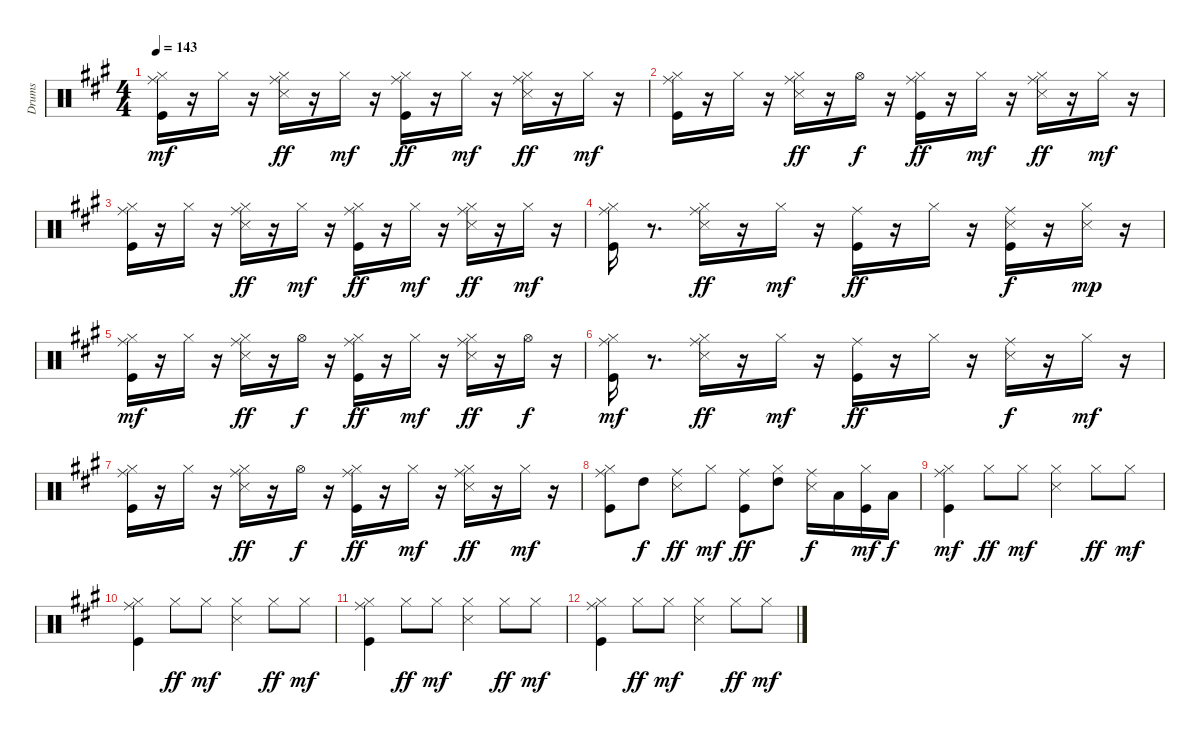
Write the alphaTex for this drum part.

\track ("Drums" "Drums") {instrument percussion}
\staff {score}
\articulation defaults
\ts (4 4)
\tempo 143
\clef neutral
\ks a
("Kick (hit)" "Hi-Hat (closed)" "Ride (middle)").16{dy mf} r.16 "Hi-Hat (closed)".16 r.16 ("Hi-Hat (closed)" "Snare (side stick) 3" "Ride (middle)").16{dy ff} r.16 "Hi-Hat (closed)".16{dy mf} r.16 ("Kick (hit)" "Hi-Hat (closed)" "Ride (middle)").16{dy ff} r.16 "Hi-Hat (closed)".16{dy mf} r.16 ("Hi-Hat (closed)" "Snare (side stick) 3" "Ride (middle)").16{dy ff} r.16 "Hi-Hat (closed)".16{dy mf} r.16 |
("Kick (hit)" "Hi-Hat (closed)" "Ride (middle)").16 r.16 "Hi-Hat (closed)".16 r.16 ("Hi-Hat (closed)" "Snare (side stick) 3" "Ride (middle)").16{dy ff} r.16 "Hi-Hat (open)".16{dy f} r.16 ("Kick (hit)" "Hi-Hat (closed)" "Ride (middle)").16{dy ff} r.16 "Hi-Hat (closed)".16{dy mf} r.16 ("Hi-Hat (closed)" "Snare (side stick) 3" "Ride (middle)").16{dy ff} r.16 "Hi-Hat (closed)".16{dy mf} r.16 |
("Kick (hit)" "Hi-Hat (closed)" "Ride (middle)").16 r.16 "Hi-Hat (closed)".16 r.16 ("Hi-Hat (closed)" "Snare (side stick) 3" "Ride (middle)").16{dy ff} r.16 "Hi-Hat (closed)".16{dy mf} r.16 ("Kick (hit)" "Hi-Hat (closed)" "Ride (middle)").16{dy ff} r.16 "Hi-Hat (closed)".16{dy mf} r.16 ("Hi-Hat (closed)" "Snare (side stick) 3" "Ride (middle)").16{dy ff} r.16 "Hi-Hat (closed)".16{dy mf} r.16 |
("Kick (hit)" "Hi-Hat (closed)" "Ride (middle)").16 r.8{d} ("Hi-Hat (closed)" "Snare (side stick) 3" "Ride (middle)").16{dy ff} r.16 "Hi-Hat (closed)".16{dy mf} r.16 ("Kick (hit)" "Ride (middle)").16{dy ff} r.16 "Hi-Hat (closed)".16 r.16 ("Kick (hit)" "Snare (side stick) 3" "Ride (middle)").16{dy f} r.16 ("Hi-Hat (closed)" "Snare (side stick) 3").16{dy mp} r.16 |
("Kick (hit)" "Hi-Hat (closed)" "Ride (middle)").16{dy mf} r.16 "Hi-Hat (closed)".16 r.16 ("Hi-Hat (closed)" "Snare (side stick) 3" "Ride (middle)").16{dy ff} r.16 "Hi-Hat (open)".16{dy f} r.16 ("Kick (hit)" "Hi-Hat (closed)" "Ride (middle)").16{dy ff} r.16 "Hi-Hat (closed)".16{dy mf} r.16 ("Hi-Hat (closed)" "Snare (side stick) 3" "Ride (middle)").16{dy ff} r.16 "Hi-Hat (open)".16{dy f} r.16 |
("Kick (hit)" "Hi-Hat (closed)" "Ride (middle)").16{dy mf} r.8{d} ("Hi-Hat (closed)" "Snare (side stick) 3" "Ride (middle)").16{dy ff} r.16 "Hi-Hat (closed)".16{dy mf} r.16 ("Kick (hit)" "Ride (middle)").16{dy ff} r.16 "Hi-Hat (closed)".16 r.16 ("Snare (side stick) 3" "Ride (middle)").16{dy f} r.16 "Hi-Hat (closed)".16{dy mf} r.16 |
("Kick (hit)" "Hi-Hat (closed)" "Ride (middle)").16 r.16 "Hi-Hat (closed)".16 r.16 ("Hi-Hat (closed)" "Snare (side stick) 3" "Ride (middle)").16{dy ff} r.16 "Hi-Hat (open)".16{dy f} r.16 ("Kick (hit)" "Hi-Hat (closed)" "Ride (middle)").16{dy ff} r.16 "Hi-Hat (closed)".16{dy mf} r.16 ("Hi-Hat (closed)" "Snare (side stick) 3" "Ride (middle)").16{dy ff} r.16 "Hi-Hat (closed)".16{dy mf} r.16 |
("Hi-Hat (closed)" "Ride (middle)" "Kick (hit)").8 "High Tom (hit)".8{dy f} ("Ride (middle)" "Snare (side stick) 3").8{dy ff} "Hi-Hat (closed)".8{dy mf} ("Ride (middle)" "Kick (hit)").8{dy ff} ("Hi-Hat (closed)" "High Tom (hit)").8 ("Ride (middle)" "Snare (side stick) 3").16{dy f} "Low Tom (hit)".16 ("Hi-Hat (closed)" "Kick (hit)").16{dy mf} "Low Floor Tom (hit)".16{dy f} |
("Hi-Hat (closed)" "Ride (middle)" "Kick (hit)").4{dy mf} "Hi-Hat (closed)".8{dy ff} "Hi-Hat (closed)".8{dy mf} ("Hi-Hat (closed)" "Snare (side stick) 3").4 "Hi-Hat (closed)".8{dy ff} "Hi-Hat (closed)".8{dy mf} |
("Hi-Hat (closed)" "Ride (middle)" "Kick (hit)").4 "Hi-Hat (closed)".8{dy ff} "Hi-Hat (closed)".8{dy mf} ("Hi-Hat (closed)" "Snare (side stick) 3").4 "Hi-Hat (closed)".8{dy ff} "Hi-Hat (closed)".8{dy mf} |
("Hi-Hat (closed)" "Ride (middle)" "Kick (hit)").4 "Hi-Hat (closed)".8{dy ff} "Hi-Hat (closed)".8{dy mf} ("Hi-Hat (closed)" "Snare (side stick) 3").4 "Hi-Hat (closed)".8{dy ff} "Hi-Hat (closed)".8{dy mf} |
("Hi-Hat (closed)" "Ride (middle)" "Kick (hit)").4 "Hi-Hat (closed)".8{dy ff} "Hi-Hat (closed)".8{dy mf} ("Hi-Hat (closed)" "Snare (side stick) 3").4 "Hi-Hat (closed)".8{dy ff} "Hi-Hat (closed)".8{dy mf}
